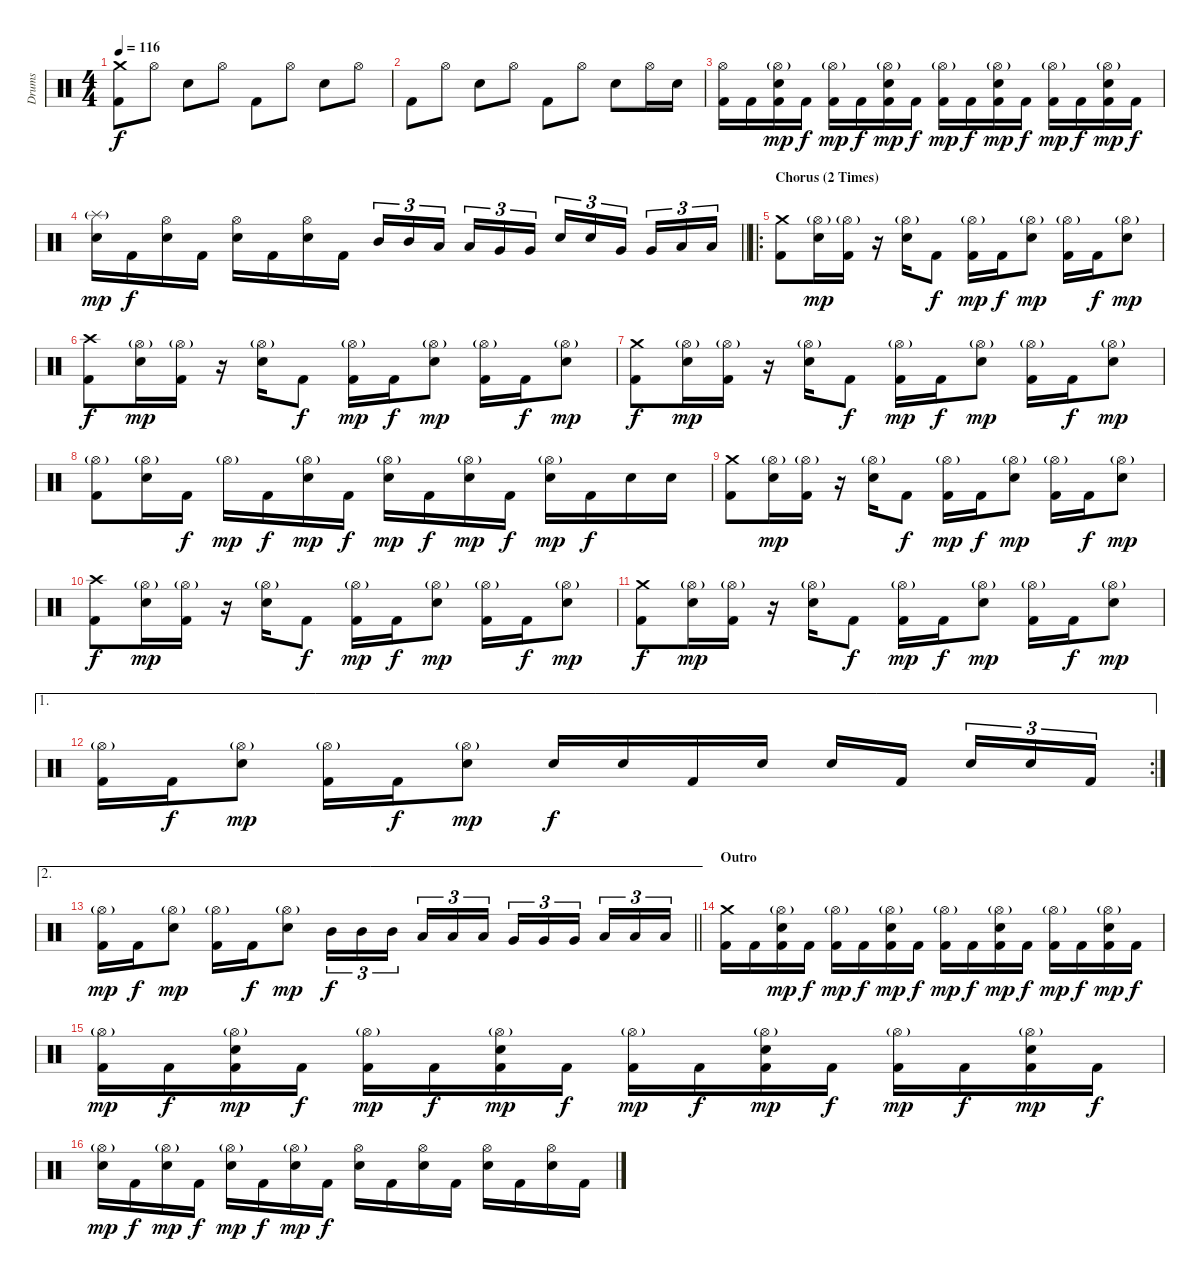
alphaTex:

\track ("Drums" "Drums") {instrument percussion}
\staff {score}
\articulation defaults
\ts (4 4)
\tempo 116
\clef neutral
\ks c
("Crash medium (hit)" "Kick (hit) 2").8{dy f} "Hi-Hat (open)".8 "Electric Snare (hit)".8 "Hi-Hat (open)".8 "Kick (hit) 2".8 "Hi-Hat (open)".8 "Electric Snare (hit)".8 "Hi-Hat (open)".8 |
"Kick (hit) 2".8 "Hi-Hat (open)".8 "Electric Snare (hit)".8 "Hi-Hat (open)".8 "Kick (hit) 2".8 "Hi-Hat (open)".8 "Electric Snare (hit)".8 "Hi-Hat (open)".16 "Electric Snare (hit)".16 |
("Hi-Hat (open)" "Kick (hit) 2").16 "Kick (hit) 2".16 ("Hi-Hat (open)"{g} "Kick (hit) 2" "Electric Snare (hit)").16{dy mp} "Kick (hit) 2".16{dy f} ("Hi-Hat (open)"{g} "Kick (hit) 2").16{dy mp} "Kick (hit) 2".16{dy f} ("Hi-Hat (open)"{g} "Kick (hit) 2" "Electric Snare (hit)").16{dy mp} "Kick (hit) 2".16{dy f} ("Hi-Hat (open)"{g} "Kick (hit) 2").16{dy mp} "Kick (hit) 2".16{dy f} ("Hi-Hat (open)"{g} "Kick (hit) 2" "Electric Snare (hit)").16{dy mp} "Kick (hit) 2".16{dy f} ("Hi-Hat (open)"{g} "Kick (hit) 2").16{dy mp} "Kick (hit) 2".16{dy f} ("Hi-Hat (open)"{g} "Kick (hit) 2" "Electric Snare (hit)").16{dy mp} "Kick (hit) 2".16{dy f} |
\barLineRight lightlight
("Splash (hit)"{g} "Electric Snare (hit)").16{dy mp} "Kick (hit) 2".16{dy f} ("Hi-Hat (open)" "Electric Snare (hit)").16 "Kick (hit) 2".16 ("Hi-Hat (open)" "Electric Snare (hit)").16 "Kick (hit) 2".16 ("Hi-Hat (open)" "Electric Snare (hit)").16 "Kick (hit) 2".16 "Mid Tom (hit)".16{tu (3 2)} "Mid Tom (hit)".16{tu (3 2)} "Low Tom (hit)".16{tu (3 2) beam splitsecondary} "Low Tom (hit)".16{tu (3 2)} "Very Low Tom (hit)".16{tu (3 2)} "Very Low Tom (hit)".16{tu (3 2)} "Electric Snare (hit)".16{tu (3 2)} "Electric Snare (hit)".16{tu (3 2)} "Very Low Tom (hit)".16{tu (3 2) beam splitsecondary} "Very Low Tom (hit)".16{tu (3 2)} "Low Floor Tom (hit)".16{tu (3 2)} "Low Floor Tom (hit)".16{tu (3 2)} |
\ro
\section ("" "Chorus (2 Times)")
("Crash medium (hit)" "Kick (hit) 2").8 ("Hi-Hat (open)"{g} "Electric Snare (hit)").16{dy mp} ("Hi-Hat (open)"{g} "Kick (hit) 2").16 r.16 ("Hi-Hat (open)"{g} "Electric Snare (hit)").16 "Kick (hit) 2".8{dy f} ("Hi-Hat (open)"{g} "Kick (hit) 2").16{dy mp} "Kick (hit) 2".16{dy f} ("Hi-Hat (open)"{g} "Electric Snare (hit)").8{dy mp} ("Hi-Hat (open)"{g} "Kick (hit) 2").16 "Kick (hit) 2".16{dy f} ("Hi-Hat (open)"{g} "Electric Snare (hit)").8{dy mp} |
("Crash high (hit)" "Kick (hit) 2").8{dy f} ("Hi-Hat (open)"{g} "Electric Snare (hit)").16{dy mp} ("Hi-Hat (open)"{g} "Kick (hit) 2").16 r.16 ("Hi-Hat (open)"{g} "Electric Snare (hit)").16 "Kick (hit) 2".8{dy f} ("Hi-Hat (open)"{g} "Kick (hit) 2").16{dy mp} "Kick (hit) 2".16{dy f} ("Hi-Hat (open)"{g} "Electric Snare (hit)").8{dy mp} ("Hi-Hat (open)"{g} "Kick (hit) 2").16 "Kick (hit) 2".16{dy f} ("Hi-Hat (open)"{g} "Electric Snare (hit)").8{dy mp} |
("Crash medium (hit)" "Kick (hit) 2").8{dy f} ("Hi-Hat (open)"{g} "Electric Snare (hit)").16{dy mp} ("Hi-Hat (open)"{g} "Kick (hit) 2").16 r.16 ("Hi-Hat (open)"{g} "Electric Snare (hit)").16 "Kick (hit) 2".8{dy f} ("Hi-Hat (open)"{g} "Kick (hit) 2").16{dy mp} "Kick (hit) 2".16{dy f} ("Hi-Hat (open)"{g} "Electric Snare (hit)").8{dy mp} ("Hi-Hat (open)"{g} "Kick (hit) 2").16 "Kick (hit) 2".16{dy f} ("Hi-Hat (open)"{g} "Electric Snare (hit)").8{dy mp} |
("Hi-Hat (open)"{g} "Kick (hit) 2").8 ("Hi-Hat (open)"{g} "Electric Snare (hit)").16 "Kick (hit) 2".16{dy f} "Hi-Hat (open)"{g}.16{dy mp} "Kick (hit) 2".16{dy f} ("Hi-Hat (open)"{g} "Electric Snare (hit)").16{dy mp} "Kick (hit) 2".16{dy f} ("Hi-Hat (open)"{g} "Electric Snare (hit)").16{dy mp} "Kick (hit) 2".16{dy f} ("Hi-Hat (open)"{g} "Electric Snare (hit)").16{dy mp} "Kick (hit) 2".16{dy f} ("Hi-Hat (open)"{g} "Electric Snare (hit)").16{dy mp} "Kick (hit) 2".16{dy f} "Electric Snare (hit)".16 "Electric Snare (hit)".16 |
("Crash medium (hit)" "Kick (hit) 2").8 ("Hi-Hat (open)"{g} "Electric Snare (hit)").16{dy mp} ("Hi-Hat (open)"{g} "Kick (hit) 2").16 r.16 ("Hi-Hat (open)"{g} "Electric Snare (hit)").16 "Kick (hit) 2".8{dy f} ("Hi-Hat (open)"{g} "Kick (hit) 2").16{dy mp} "Kick (hit) 2".16{dy f} ("Hi-Hat (open)"{g} "Electric Snare (hit)").8{dy mp} ("Hi-Hat (open)"{g} "Kick (hit) 2").16 "Kick (hit) 2".16{dy f} ("Hi-Hat (open)"{g} "Electric Snare (hit)").8{dy mp} |
("Crash high (hit)" "Kick (hit) 2").8{dy f} ("Hi-Hat (open)"{g} "Electric Snare (hit)").16{dy mp} ("Hi-Hat (open)"{g} "Kick (hit) 2").16 r.16 ("Hi-Hat (open)"{g} "Electric Snare (hit)").16 "Kick (hit) 2".8{dy f} ("Hi-Hat (open)"{g} "Kick (hit) 2").16{dy mp} "Kick (hit) 2".16{dy f} ("Hi-Hat (open)"{g} "Electric Snare (hit)").8{dy mp} ("Hi-Hat (open)"{g} "Kick (hit) 2").16 "Kick (hit) 2".16{dy f} ("Hi-Hat (open)"{g} "Electric Snare (hit)").8{dy mp} |
("Crash medium (hit)" "Kick (hit) 2").8{dy f} ("Hi-Hat (open)"{g} "Electric Snare (hit)").16{dy mp} ("Hi-Hat (open)"{g} "Kick (hit) 2").16 r.16 ("Hi-Hat (open)"{g} "Electric Snare (hit)").16 "Kick (hit) 2".8{dy f} ("Hi-Hat (open)"{g} "Kick (hit) 2").16{dy mp} "Kick (hit) 2".16{dy f} ("Hi-Hat (open)"{g} "Electric Snare (hit)").8{dy mp} ("Hi-Hat (open)"{g} "Kick (hit) 2").16 "Kick (hit) 2".16{dy f} ("Hi-Hat (open)"{g} "Electric Snare (hit)").8{dy mp} |
\ae 1
\rc 2
("Hi-Hat (open)"{g} "Kick (hit) 2").16 "Kick (hit) 2".16{dy f} ("Hi-Hat (open)"{g} "Electric Snare (hit)").8{dy mp} ("Hi-Hat (open)"{g} "Kick (hit) 2").16 "Kick (hit) 2".16{dy f} ("Hi-Hat (open)"{g} "Electric Snare (hit)").8{dy mp} "Electric Snare (hit)".16{dy f} "Electric Snare (hit)".16 "Kick (hit) 2".16 "Electric Snare (hit)".16 "Electric Snare (hit)".16 "Kick (hit) 2".16{beam splitsecondary} "Electric Snare (hit)".16{tu (3 2)} "Electric Snare (hit)".16{tu (3 2)} "Kick (hit) 2".16{tu (3 2)} |
\ae 2
\barLineRight lightlight
("Hi-Hat (open)"{g} "Kick (hit) 2").16{dy mp} "Kick (hit) 2".16{dy f} ("Hi-Hat (open)"{g} "Electric Snare (hit)").8{dy mp} ("Hi-Hat (open)"{g} "Kick (hit) 2").16 "Kick (hit) 2".16{dy f} ("Hi-Hat (open)"{g} "Electric Snare (hit)").8{dy mp} "Mid Tom (hit)".16{tu (3 2) dy f} "Mid Tom (hit)".16{tu (3 2)} "Mid Tom (hit)".16{tu (3 2) beam splitsecondary} "Low Tom (hit)".16{tu (3 2)} "Low Tom (hit)".16{tu (3 2)} "Low Tom (hit)".16{tu (3 2)} "Very Low Tom (hit)".16{tu (3 2)} "Very Low Tom (hit)".16{tu (3 2)} "Very Low Tom (hit)".16{tu (3 2) beam splitsecondary} "Low Floor Tom (hit)".16{tu (3 2)} "Low Floor Tom (hit)".16{tu (3 2)} "Low Floor Tom (hit)".16{tu (3 2)} |
\section ("" "Outro")
("Crash medium (hit)" "Kick (hit) 2").16 "Kick (hit) 2".16 ("Hi-Hat (open)"{g} "Kick (hit) 2" "Electric Snare (hit)").16{dy mp} "Kick (hit) 2".16{dy f} ("Hi-Hat (open)"{g} "Kick (hit) 2").16{dy mp} "Kick (hit) 2".16{dy f} ("Hi-Hat (open)"{g} "Kick (hit) 2" "Electric Snare (hit)").16{dy mp} "Kick (hit) 2".16{dy f} ("Hi-Hat (open)"{g} "Kick (hit) 2").16{dy mp} "Kick (hit) 2".16{dy f} ("Hi-Hat (open)"{g} "Kick (hit) 2" "Electric Snare (hit)").16{dy mp} "Kick (hit) 2".16{dy f} ("Hi-Hat (open)"{g} "Kick (hit) 2").16{dy mp} "Kick (hit) 2".16{dy f} ("Hi-Hat (open)"{g} "Kick (hit) 2" "Electric Snare (hit)").16{dy mp} "Kick (hit) 2".16{dy f} |
("Hi-Hat (open)"{g} "Kick (hit) 2").16{dy mp} "Kick (hit) 2".16{dy f} ("Hi-Hat (open)"{g} "Kick (hit) 2" "Electric Snare (hit)").16{dy mp} "Kick (hit) 2".16{dy f} ("Hi-Hat (open)"{g} "Kick (hit) 2").16{dy mp} "Kick (hit) 2".16{dy f} ("Hi-Hat (open)"{g} "Kick (hit) 2" "Electric Snare (hit)").16{dy mp} "Kick (hit) 2".16{dy f} ("Hi-Hat (open)"{g} "Kick (hit) 2").16{dy mp} "Kick (hit) 2".16{dy f} ("Hi-Hat (open)"{g} "Kick (hit) 2" "Electric Snare (hit)").16{dy mp} "Kick (hit) 2".16{dy f} ("Hi-Hat (open)"{g} "Kick (hit) 2").16{dy mp} "Kick (hit) 2".16{dy f} ("Hi-Hat (open)"{g} "Kick (hit) 2" "Electric Snare (hit)").16{dy mp} "Kick (hit) 2".16{dy f} |
("Hi-Hat (open)"{g} "Electric Snare (hit)").16{dy mp} "Kick (hit) 2".16{dy f} ("Hi-Hat (open)"{g} "Electric Snare (hit)").16{dy mp} "Kick (hit) 2".16{dy f} ("Hi-Hat (open)"{g} "Electric Snare (hit)").16{dy mp} "Kick (hit) 2".16{dy f} ("Hi-Hat (open)"{g} "Electric Snare (hit)").16{dy mp} "Kick (hit) 2".16{dy f} ("Hi-Hat (open)" "Electric Snare (hit)").16 "Kick (hit) 2".16 ("Hi-Hat (open)" "Electric Snare (hit)").16 "Kick (hit) 2".16 ("Hi-Hat (open)" "Electric Snare (hit)").16 "Kick (hit) 2".16 ("Hi-Hat (open)" "Electric Snare (hit)").16 "Kick (hit) 2".16
